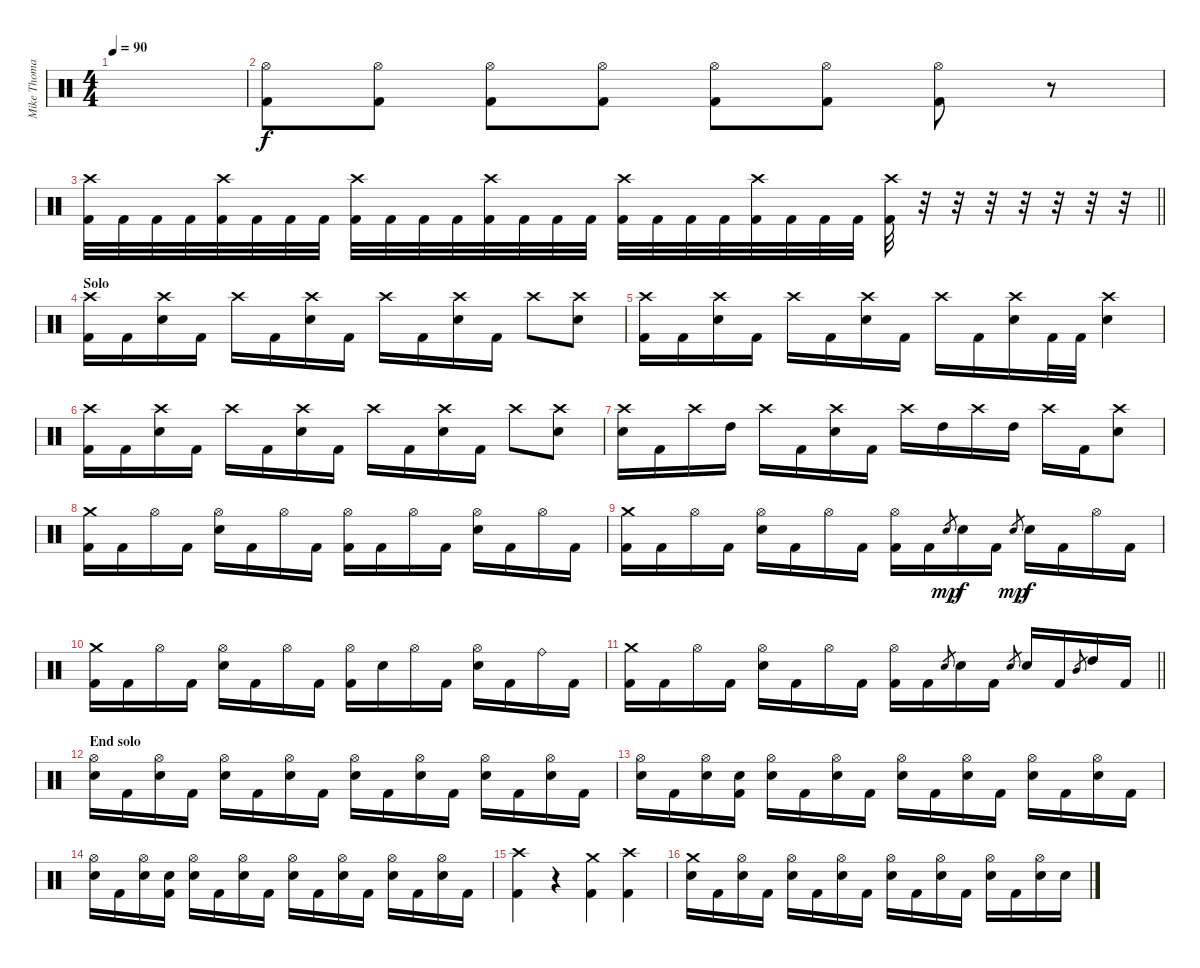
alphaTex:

\track ("Mike Thomas (moose)" "Mike Thoma") {instrument percussion}
\staff {score}
\articulation defaults
\ts (4 4)
\tempo 90
\clef neutral
\ks c
|
("Hi-Hat (open)" "Kick (hit) 2").8 ("Hi-Hat (open)" "Kick (hit) 2").8 ("Hi-Hat (open)" "Kick (hit) 2").8 ("Hi-Hat (open)" "Kick (hit) 2").8 ("Hi-Hat (open)" "Kick (hit) 2").8 ("Hi-Hat (open)" "Kick (hit) 2").8 ("Hi-Hat (open)" "Kick (hit) 2").8 r.8 |
\barLineRight lightlight
("Crash high (hit)" "Kick (hit) 2").32 "Kick (hit) 2".32 "Kick (hit) 2".32 "Kick (hit) 2".32 ("Crash high (hit)" "Kick (hit) 2").32 "Kick (hit) 2".32 "Kick (hit) 2".32 "Kick (hit) 2".32 ("Crash high (hit)" "Kick (hit) 2").32 "Kick (hit) 2".32 "Kick (hit) 2".32 "Kick (hit) 2".32 ("Crash high (hit)" "Kick (hit) 2").32 "Kick (hit) 2".32 "Kick (hit) 2".32 "Kick (hit) 2".32 ("Crash high (hit)" "Kick (hit) 2").32 "Kick (hit) 2".32 "Kick (hit) 2".32 "Kick (hit) 2".32 ("Crash high (hit)" "Kick (hit) 2").32 "Kick (hit) 2".32 "Kick (hit) 2".32 "Kick (hit) 2".32 ("Crash high (hit)" "Kick (hit) 2").32 r.32 r.32 r.32 r.32 r.32 r.32 r.32 |
\section ("" "Solo")
("Crash high (hit)" "Kick (hit) 2").16 "Kick (hit) 2".16 ("Crash high (hit)" "Electric Snare (hit)").16 "Kick (hit) 2".16 "Crash high (hit)".16 "Kick (hit) 2".16 ("Crash high (hit)" "Electric Snare (hit)").16 "Kick (hit) 2".16 "Crash high (hit)".16 "Kick (hit) 2".16 ("Crash high (hit)" "Electric Snare (hit)").16 "Kick (hit) 2".16 "Crash high (hit)".8 ("Crash high (hit)" "Electric Snare (hit)").8 |
("Crash high (hit)" "Kick (hit) 2").16 "Kick (hit) 2".16 ("Crash high (hit)" "Electric Snare (hit)").16 "Kick (hit) 2".16 "Crash high (hit)".16 "Kick (hit) 2".16 ("Crash high (hit)" "Electric Snare (hit)").16 "Kick (hit) 2".16 "Crash high (hit)".16 "Kick (hit) 2".16 ("Crash high (hit)" "Electric Snare (hit)").16 "Kick (hit) 2".32 "Kick (hit) 2".32 ("Crash high (hit)" "Electric Snare (hit)").4 |
("Crash high (hit)" "Kick (hit) 2").16 "Kick (hit) 2".16 ("Crash high (hit)" "Electric Snare (hit)").16 "Kick (hit) 2".16 "Crash high (hit)".16 "Kick (hit) 2".16 ("Crash high (hit)" "Electric Snare (hit)").16 "Kick (hit) 2".16 "Crash high (hit)".16 "Kick (hit) 2".16 ("Crash high (hit)" "Electric Snare (hit)").16 "Kick (hit) 2".16 "Crash high (hit)".8 ("Crash high (hit)" "Electric Snare (hit)").8 |
("Crash high (hit)" "Electric Snare (hit)").16 "Kick (hit) 2".16 "Crash high (hit)".16 "High Tom (hit)".16 "Crash high (hit)".16 "Kick (hit) 2".16 ("Crash high (hit)" "Electric Snare (hit)").16 "Kick (hit) 2".16 "Crash high (hit)".16 "High Tom (hit)".16 "Crash high (hit)".16 "High Tom (hit)".16 "Crash high (hit)".16 "Kick (hit) 2".16 ("Crash high (hit)" "Electric Snare (hit)").8 |
("Crash medium (hit)" "Kick (hit) 2").16 "Kick (hit) 2".16 "Hi-Hat (open)".16 "Kick (hit) 2".16 ("Hi-Hat (open)" "Electric Snare (hit)").16 "Kick (hit) 2".16 "Hi-Hat (open)".16 "Kick (hit) 2".16 ("Hi-Hat (open)" "Kick (hit) 2").16 "Kick (hit) 2".16 "Hi-Hat (open)".16 "Kick (hit) 2".16 ("Hi-Hat (open)" "Electric Snare (hit)").16 "Kick (hit) 2".16 "Hi-Hat (open)".16 "Kick (hit) 2".16 |
("Crash medium (hit)" "Kick (hit) 2").16 "Kick (hit) 2".16 "Hi-Hat (open)".16 "Kick (hit) 2".16 ("Hi-Hat (open)" "Electric Snare (hit)").16 "Kick (hit) 2".16 "Hi-Hat (open)".16 "Kick (hit) 2".16 ("Hi-Hat (open)" "Kick (hit) 2").16 "Kick (hit) 2".16 "Electric Snare (hit)".8{gr dy mp} "Electric Snare (hit)".16{dy f} "Kick (hit) 2".16 "Electric Snare (hit)".8{gr dy mp} "Electric Snare (hit)".16{dy f} "Kick (hit) 2".16 "Hi-Hat (open)".16 "Kick (hit) 2".16 |
("Crash medium (hit)" "Kick (hit) 2").16 "Kick (hit) 2".16 "Hi-Hat (open)".16 "Kick (hit) 2".16 ("Hi-Hat (open)" "Electric Snare (hit)").16 "Kick (hit) 2".16 "Hi-Hat (open)".16 "Kick (hit) 2".16 ("Hi-Hat (open)" "Kick (hit) 2").16 "Electric Snare (hit)".16 "Hi-Hat (open)".16 "Kick (hit) 2".16 ("Hi-Hat (open)" "Electric Snare (hit)").16 "Kick (hit) 2".16 "Ride (bell)".16 "Kick (hit) 2".16 |
\barLineRight lightlight
("Crash medium (hit)" "Kick (hit) 2").16 "Kick (hit) 2".16 "Hi-Hat (open)".16 "Kick (hit) 2".16 ("Hi-Hat (open)" "Electric Snare (hit)").16 "Kick (hit) 2".16 "Hi-Hat (open)".16 "Kick (hit) 2".16 ("Hi-Hat (open)" "Kick (hit) 2").16 "Kick (hit) 2".16 "Electric Snare (hit)".8{gr} "Electric Snare (hit)".16 "Kick (hit) 2".16 "Electric Snare (hit)".8{gr} "Electric Snare (hit)".16 "Kick (hit) 2".16 "Mid Tom (hit)".8{gr} "High Tom (hit)".16 "Kick (hit) 2".16 |
\section ("" "End solo")
("Hi-Hat (open)" "Electric Snare (hit)").16 "Kick (hit) 2".16 ("Hi-Hat (open)" "Electric Snare (hit)").16 "Kick (hit) 2".16 ("Hi-Hat (open)" "Electric Snare (hit)").16 "Kick (hit) 2".16 ("Hi-Hat (open)" "Electric Snare (hit)").16 "Kick (hit) 2".16 ("Hi-Hat (open)" "Electric Snare (hit)").16 "Kick (hit) 2".16 ("Hi-Hat (open)" "Electric Snare (hit)").16 "Kick (hit) 2".16 ("Hi-Hat (open)" "Electric Snare (hit)").16 "Kick (hit) 2".16 ("Hi-Hat (open)" "Electric Snare (hit)").16 "Kick (hit) 2".16 |
("Hi-Hat (open)" "Electric Snare (hit)").16 "Kick (hit) 2".16 ("Hi-Hat (open)" "Electric Snare (hit)").16 ("Electric Snare (hit)" "Kick (hit) 2").16 ("Hi-Hat (open)" "Electric Snare (hit)").16 "Kick (hit) 2".16 ("Hi-Hat (open)" "Electric Snare (hit)").16 "Kick (hit) 2".16 ("Hi-Hat (open)" "Electric Snare (hit)").16 "Kick (hit) 2".16 ("Hi-Hat (open)" "Electric Snare (hit)").16 "Kick (hit) 2".16 ("Hi-Hat (open)" "Electric Snare (hit)").16 "Kick (hit) 2".16 ("Hi-Hat (open)" "Electric Snare (hit)").16 "Kick (hit) 2".16 |
("Hi-Hat (open)" "Electric Snare (hit)").16 "Kick (hit) 2".16 ("Hi-Hat (open)" "Electric Snare (hit)").16 ("Electric Snare (hit)" "Kick (hit) 2").16 ("Hi-Hat (open)" "Electric Snare (hit)").16 "Kick (hit) 2".16 ("Hi-Hat (open)" "Electric Snare (hit)").16 "Kick (hit) 2".16 ("Hi-Hat (open)" "Electric Snare (hit)").16 "Kick (hit) 2".16 ("Hi-Hat (open)" "Electric Snare (hit)").16 "Kick (hit) 2".16 ("Hi-Hat (open)" "Electric Snare (hit)").16 "Kick (hit) 2".16 ("Hi-Hat (open)" "Electric Snare (hit)").16 "Kick (hit) 2".16 |
("Crash high (hit)" "Kick (hit) 2").4{volume 13} r.4 ("Crash medium (hit)" "Kick (hit) 2").4 ("Crash high (hit)" "Kick (hit) 2").4{volume 13} |
("Crash medium (hit)" "Electric Snare (hit)").16 "Kick (hit) 2".16 ("Hi-Hat (open)" "Electric Snare (hit)").16 "Kick (hit) 2".16 ("Hi-Hat (open)" "Electric Snare (hit)").16 "Kick (hit) 2".16 ("Hi-Hat (open)" "Electric Snare (hit)").16 "Kick (hit) 2".16 ("Hi-Hat (open)" "Electric Snare (hit)").16 "Kick (hit) 2".16 ("Hi-Hat (open)" "Electric Snare (hit)").16 "Kick (hit) 2".16 ("Hi-Hat (open)" "Electric Snare (hit)").16 "Kick (hit) 2".16 ("Hi-Hat (open)" "Electric Snare (hit)").16 "Electric Snare (hit)".16
